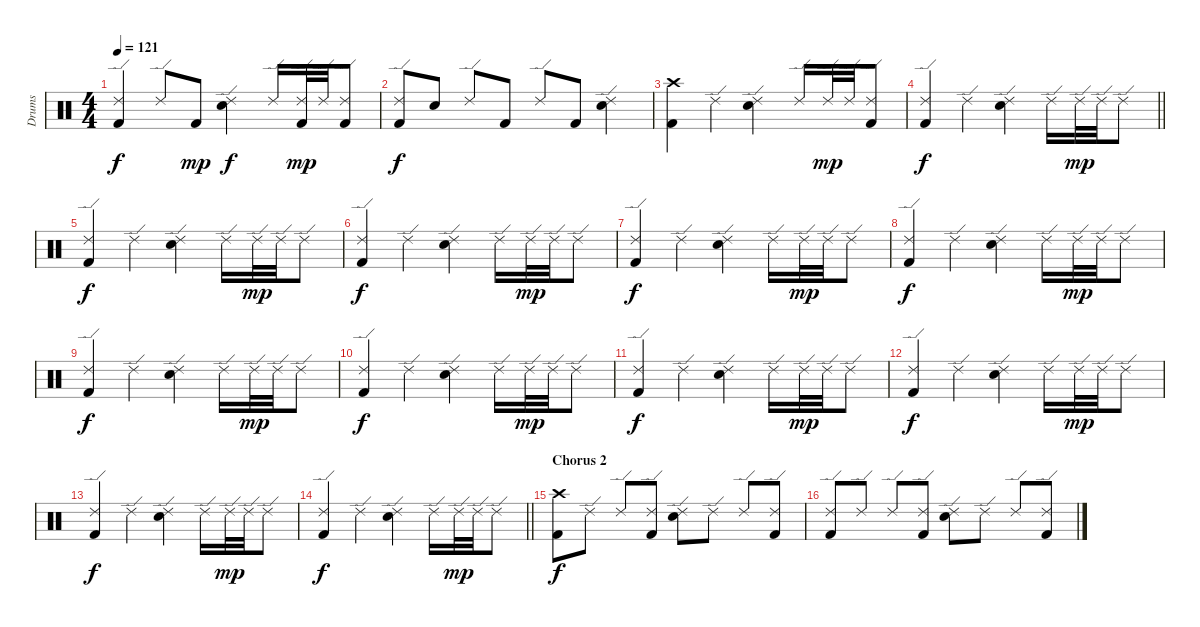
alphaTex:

\track ("Drums" "Drums") {instrument percussion}
\staff {score}
\articulation defaults
\ts (4 4)
\tempo 121
\clef neutral
\ks c
("Ride (edge) 2" "Kick (hit) 2").4{dy f} "Ride (edge) 2".8 "Kick (hit) 2".8{dy mp} ("Ride (edge) 2" "Electric Snare (hit)").4{dy f} "Ride (edge) 2".16 ("Ride (edge) 2" "Kick (hit) 2").32{dy mp} "Ride (edge) 2".32 ("Ride (edge) 2" "Kick (hit) 2").8 |
("Ride (edge) 2" "Kick (hit) 2").8{dy f} "Electric Snare (hit)".8 "Ride (edge) 2".8 "Kick (hit) 2".8 "Ride (edge) 2".8 "Kick (hit) 2".8 ("Ride (edge) 2" "Electric Snare (hit)").4 |
("Crash high (hit)" "Kick (hit) 2").4 "Ride (edge) 2".4 ("Ride (edge) 2" "Electric Snare (hit)").4 "Ride (edge) 2".16 "Ride (edge) 2".32{dy mp} "Ride (edge) 2".32 ("Ride (edge) 2" "Kick (hit) 2").8 |
\barLineRight lightlight
("Ride (edge) 2" "Kick (hit) 2").4{dy f} "Ride (edge) 2".4 ("Ride (edge) 2" "Electric Snare (hit)").4 "Ride (edge) 2".16 "Ride (edge) 2".32{dy mp} "Ride (edge) 2".32 "Ride (edge) 2".8 |
("Ride (edge) 2" "Kick (hit) 2").4{dy f} "Ride (edge) 2".4 ("Ride (edge) 2" "Electric Snare (hit)").4 "Ride (edge) 2".16 "Ride (edge) 2".32{dy mp} "Ride (edge) 2".32 "Ride (edge) 2".8 |
("Ride (edge) 2" "Kick (hit) 2").4{dy f} "Ride (edge) 2".4 ("Ride (edge) 2" "Electric Snare (hit)").4 "Ride (edge) 2".16 "Ride (edge) 2".32{dy mp} "Ride (edge) 2".32 "Ride (edge) 2".8 |
("Ride (edge) 2" "Kick (hit) 2").4{dy f} "Ride (edge) 2".4 ("Ride (edge) 2" "Electric Snare (hit)").4 "Ride (edge) 2".16 "Ride (edge) 2".32{dy mp} "Ride (edge) 2".32 "Ride (edge) 2".8 |
("Ride (edge) 2" "Kick (hit) 2").4{dy f} "Ride (edge) 2".4 ("Ride (edge) 2" "Electric Snare (hit)").4 "Ride (edge) 2".16 "Ride (edge) 2".32{dy mp} "Ride (edge) 2".32 "Ride (edge) 2".8 |
("Ride (edge) 2" "Kick (hit) 2").4{dy f} "Ride (edge) 2".4 ("Ride (edge) 2" "Electric Snare (hit)").4 "Ride (edge) 2".16 "Ride (edge) 2".32{dy mp} "Ride (edge) 2".32 "Ride (edge) 2".8 |
("Ride (edge) 2" "Kick (hit) 2").4{dy f} "Ride (edge) 2".4 ("Ride (edge) 2" "Electric Snare (hit)").4 "Ride (edge) 2".16 "Ride (edge) 2".32{dy mp} "Ride (edge) 2".32 "Ride (edge) 2".8 |
("Ride (edge) 2" "Kick (hit) 2").4{dy f} "Ride (edge) 2".4 ("Ride (edge) 2" "Electric Snare (hit)").4 "Ride (edge) 2".16 "Ride (edge) 2".32{dy mp} "Ride (edge) 2".32 "Ride (edge) 2".8 |
("Ride (edge) 2" "Kick (hit) 2").4{dy f} "Ride (edge) 2".4 ("Ride (edge) 2" "Electric Snare (hit)").4 "Ride (edge) 2".16 "Ride (edge) 2".32{dy mp} "Ride (edge) 2".32 "Ride (edge) 2".8 |
("Ride (edge) 2" "Kick (hit) 2").4{dy f} "Ride (edge) 2".4 ("Ride (edge) 2" "Electric Snare (hit)").4 "Ride (edge) 2".16 "Ride (edge) 2".32{dy mp} "Ride (edge) 2".32 "Ride (edge) 2".8 |
\barLineRight lightlight
("Ride (edge) 2" "Kick (hit) 2").4{dy f} "Ride (edge) 2".4 ("Ride (edge) 2" "Electric Snare (hit)").4 "Ride (edge) 2".16 "Ride (edge) 2".32{dy mp} "Ride (edge) 2".32 "Ride (edge) 2".8 |
\section ("" "Chorus 2")
("Crash high (hit)" "Kick (hit) 2").8{dy f} "Ride (edge) 2".8 "Ride (edge) 2".8 ("Ride (edge) 2" "Kick (hit) 2").8 ("Ride (edge) 2" "Electric Snare (hit)").8 "Ride (edge) 2".8 "Ride (edge) 2".8 ("Ride (edge) 2" "Kick (hit) 2").8 |
("Ride (edge) 2" "Kick (hit) 2").8 "Ride (edge) 2".8 "Ride (edge) 2".8 ("Ride (edge) 2" "Kick (hit) 2").8 ("Ride (edge) 2" "Electric Snare (hit)").8 "Ride (edge) 2".8 "Ride (edge) 2".8 ("Ride (edge) 2" "Kick (hit) 2").8
